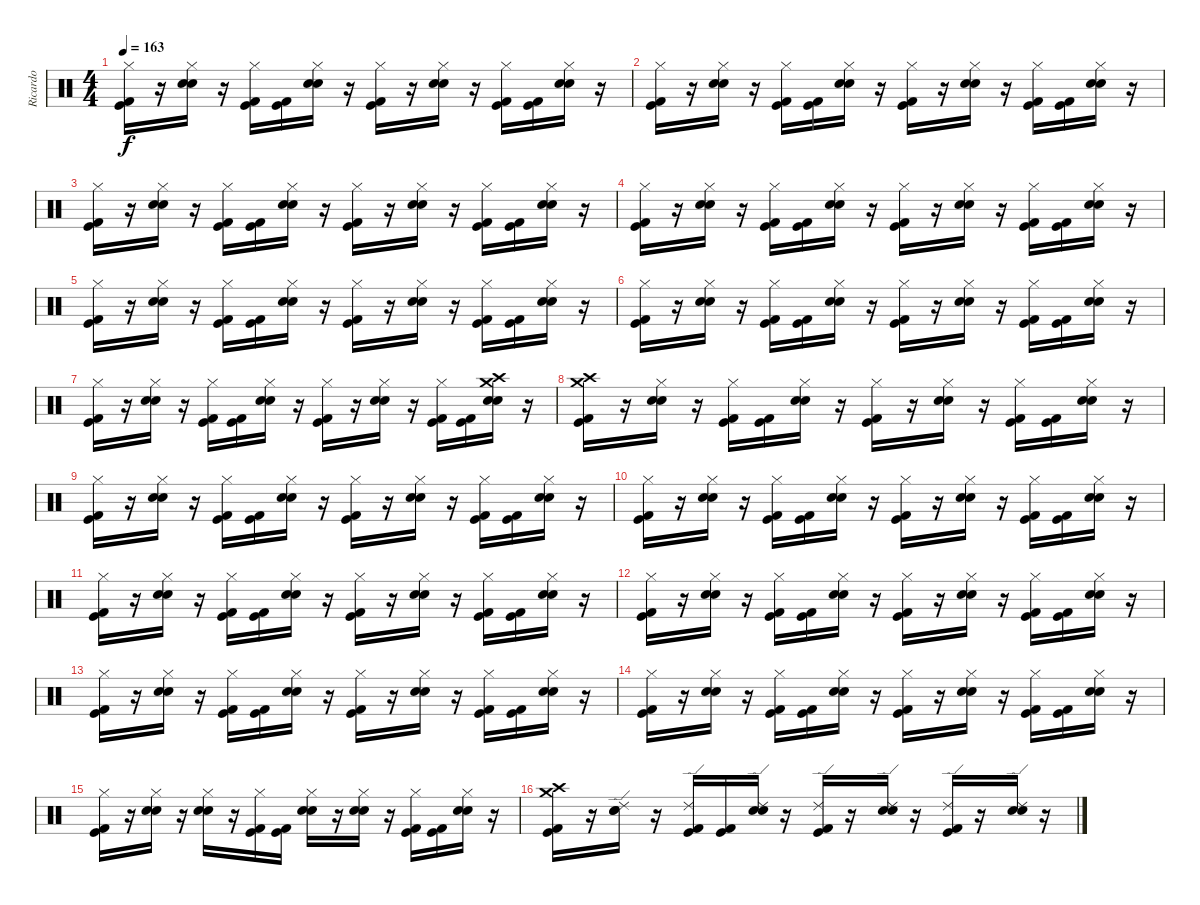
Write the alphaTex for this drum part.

\track ("Ricardo" "Ricardo") {instrument percussion}
\staff {score}
\articulation defaults
\ts (4 4)
\tempo 163
\clef neutral
\ks c
("Hi-Hat (closed)" "Kick (hit) 2" "Kick (hit)").16{dy f} r.16 ("Hi-Hat (closed)" "Electric Snare (hit)" "Snare (hit) 2").16 r.16 ("Kick (hit)" "Kick (hit) 2" "Hi-Hat (closed)").16 ("Kick (hit)" "Kick (hit) 2").16 ("Electric Snare (hit)" "Snare (hit) 2" "Hi-Hat (closed)").16 r.16 ("Kick (hit)" "Kick (hit) 2" "Hi-Hat (closed)").16 r.16 ("Electric Snare (hit)" "Snare (hit) 2" "Hi-Hat (closed)").16 r.16 ("Kick (hit) 2" "Kick (hit)" "Hi-Hat (closed)").16 ("Kick (hit) 2" "Kick (hit)").16 ("Electric Snare (hit)" "Snare (hit) 2" "Hi-Hat (closed)").16 r.16 |
("Hi-Hat (closed)" "Kick (hit) 2" "Kick (hit)").16 r.16 ("Hi-Hat (closed)" "Electric Snare (hit)" "Snare (hit) 2").16 r.16 ("Kick (hit)" "Kick (hit) 2" "Hi-Hat (closed)").16 ("Kick (hit)" "Kick (hit) 2").16 ("Electric Snare (hit)" "Snare (hit) 2" "Hi-Hat (closed)").16 r.16 ("Kick (hit)" "Kick (hit) 2" "Hi-Hat (closed)").16 r.16 ("Electric Snare (hit)" "Snare (hit) 2" "Hi-Hat (closed)").16 r.16 ("Kick (hit) 2" "Kick (hit)" "Hi-Hat (closed)").16 ("Kick (hit) 2" "Kick (hit)").16 ("Electric Snare (hit)" "Snare (hit) 2" "Hi-Hat (closed)").16 r.16 |
("Hi-Hat (closed)" "Kick (hit) 2" "Kick (hit)").16 r.16 ("Hi-Hat (closed)" "Electric Snare (hit)" "Snare (hit) 2").16 r.16 ("Kick (hit)" "Kick (hit) 2" "Hi-Hat (closed)").16 ("Kick (hit)" "Kick (hit) 2").16 ("Electric Snare (hit)" "Snare (hit) 2" "Hi-Hat (closed)").16 r.16 ("Kick (hit)" "Kick (hit) 2" "Hi-Hat (closed)").16 r.16 ("Electric Snare (hit)" "Snare (hit) 2" "Hi-Hat (closed)").16 r.16 ("Kick (hit) 2" "Kick (hit)" "Hi-Hat (closed)").16 ("Kick (hit) 2" "Kick (hit)").16 ("Electric Snare (hit)" "Snare (hit) 2" "Hi-Hat (closed)").16 r.16 |
("Hi-Hat (closed)" "Kick (hit) 2" "Kick (hit)").16 r.16 ("Hi-Hat (closed)" "Electric Snare (hit)" "Snare (hit) 2").16 r.16 ("Kick (hit)" "Kick (hit) 2" "Hi-Hat (closed)").16 ("Kick (hit)" "Kick (hit) 2").16 ("Electric Snare (hit)" "Snare (hit) 2" "Hi-Hat (closed)").16 r.16 ("Kick (hit)" "Kick (hit) 2" "Hi-Hat (closed)").16 r.16 ("Electric Snare (hit)" "Snare (hit) 2" "Hi-Hat (closed)").16 r.16 ("Kick (hit) 2" "Kick (hit)" "Hi-Hat (closed)").16 ("Kick (hit) 2" "Kick (hit)").16 ("Electric Snare (hit)" "Snare (hit) 2" "Hi-Hat (closed)").16 r.16 |
("Hi-Hat (closed)" "Kick (hit) 2" "Kick (hit)").16 r.16 ("Hi-Hat (closed)" "Electric Snare (hit)" "Snare (hit) 2").16 r.16 ("Kick (hit)" "Kick (hit) 2" "Hi-Hat (closed)").16 ("Kick (hit)" "Kick (hit) 2").16 ("Electric Snare (hit)" "Snare (hit) 2" "Hi-Hat (closed)").16 r.16 ("Kick (hit)" "Kick (hit) 2" "Hi-Hat (closed)").16 r.16 ("Electric Snare (hit)" "Snare (hit) 2" "Hi-Hat (closed)").16 r.16 ("Kick (hit) 2" "Kick (hit)" "Hi-Hat (closed)").16 ("Kick (hit) 2" "Kick (hit)").16 ("Electric Snare (hit)" "Snare (hit) 2" "Hi-Hat (closed)").16 r.16 |
("Hi-Hat (closed)" "Kick (hit) 2" "Kick (hit)").16 r.16 ("Hi-Hat (closed)" "Electric Snare (hit)" "Snare (hit) 2").16 r.16 ("Kick (hit)" "Kick (hit) 2" "Hi-Hat (closed)").16 ("Kick (hit)" "Kick (hit) 2").16 ("Electric Snare (hit)" "Snare (hit) 2" "Hi-Hat (closed)").16 r.16 ("Kick (hit)" "Kick (hit) 2" "Hi-Hat (closed)").16 r.16 ("Electric Snare (hit)" "Snare (hit) 2" "Hi-Hat (closed)").16 r.16 ("Kick (hit) 2" "Kick (hit)" "Hi-Hat (closed)").16 ("Kick (hit) 2" "Kick (hit)").16 ("Electric Snare (hit)" "Snare (hit) 2" "Hi-Hat (closed)").16 r.16 |
("Hi-Hat (closed)" "Kick (hit) 2" "Kick (hit)").16 r.16 ("Hi-Hat (closed)" "Electric Snare (hit)" "Snare (hit) 2").16 r.16 ("Kick (hit)" "Kick (hit) 2" "Hi-Hat (closed)").16 ("Kick (hit)" "Kick (hit) 2").16 ("Electric Snare (hit)" "Snare (hit) 2" "Hi-Hat (closed)").16 r.16 ("Kick (hit)" "Kick (hit) 2" "Hi-Hat (closed)").16 r.16 ("Electric Snare (hit)" "Snare (hit) 2" "Hi-Hat (closed)").16 r.16 ("Kick (hit) 2" "Kick (hit)" "Hi-Hat (closed)").16 ("Kick (hit) 2" "Kick (hit)").16 ("Crash medium (hit)" "Crash high (hit)" "Electric Snare (hit)" "Snare (hit) 2").16 r.16 |
("Crash medium (hit)" "Crash high (hit)" "Kick (hit) 2" "Kick (hit)").16 r.16 ("Hi-Hat (closed)" "Electric Snare (hit)" "Snare (hit) 2").16 r.16 ("Kick (hit)" "Kick (hit) 2" "Hi-Hat (closed)").16 ("Kick (hit)" "Kick (hit) 2").16 ("Electric Snare (hit)" "Snare (hit) 2" "Hi-Hat (closed)").16 r.16 ("Kick (hit)" "Kick (hit) 2" "Hi-Hat (closed)").16 r.16 ("Electric Snare (hit)" "Snare (hit) 2" "Hi-Hat (closed)").16 r.16 ("Kick (hit) 2" "Kick (hit)" "Hi-Hat (closed)").16 ("Kick (hit) 2" "Kick (hit)").16 ("Electric Snare (hit)" "Snare (hit) 2" "Hi-Hat (closed)").16 r.16 |
("Hi-Hat (closed)" "Kick (hit) 2" "Kick (hit)").16 r.16 ("Hi-Hat (closed)" "Electric Snare (hit)" "Snare (hit) 2").16 r.16 ("Kick (hit)" "Kick (hit) 2" "Hi-Hat (closed)").16 ("Kick (hit)" "Kick (hit) 2").16 ("Electric Snare (hit)" "Snare (hit) 2" "Hi-Hat (closed)").16 r.16 ("Kick (hit)" "Kick (hit) 2" "Hi-Hat (closed)").16 r.16 ("Electric Snare (hit)" "Snare (hit) 2" "Hi-Hat (closed)").16 r.16 ("Kick (hit) 2" "Kick (hit)" "Hi-Hat (closed)").16 ("Kick (hit) 2" "Kick (hit)").16 ("Electric Snare (hit)" "Snare (hit) 2" "Hi-Hat (closed)").16 r.16 |
("Hi-Hat (closed)" "Kick (hit) 2" "Kick (hit)").16 r.16 ("Hi-Hat (closed)" "Electric Snare (hit)" "Snare (hit) 2").16 r.16 ("Kick (hit)" "Kick (hit) 2" "Hi-Hat (closed)").16 ("Kick (hit)" "Kick (hit) 2").16 ("Electric Snare (hit)" "Snare (hit) 2" "Hi-Hat (closed)").16 r.16 ("Kick (hit)" "Kick (hit) 2" "Hi-Hat (closed)").16 r.16 ("Electric Snare (hit)" "Snare (hit) 2" "Hi-Hat (closed)").16 r.16 ("Kick (hit) 2" "Kick (hit)" "Hi-Hat (closed)").16 ("Kick (hit) 2" "Kick (hit)").16 ("Electric Snare (hit)" "Snare (hit) 2" "Hi-Hat (closed)").16 r.16 |
("Hi-Hat (closed)" "Kick (hit) 2" "Kick (hit)").16 r.16 ("Hi-Hat (closed)" "Electric Snare (hit)" "Snare (hit) 2").16 r.16 ("Kick (hit)" "Kick (hit) 2" "Hi-Hat (closed)").16 ("Kick (hit)" "Kick (hit) 2").16 ("Electric Snare (hit)" "Snare (hit) 2" "Hi-Hat (closed)").16 r.16 ("Kick (hit)" "Kick (hit) 2" "Hi-Hat (closed)").16 r.16 ("Electric Snare (hit)" "Snare (hit) 2" "Hi-Hat (closed)").16 r.16 ("Kick (hit) 2" "Kick (hit)" "Hi-Hat (closed)").16 ("Kick (hit) 2" "Kick (hit)").16 ("Electric Snare (hit)" "Snare (hit) 2" "Hi-Hat (closed)").16 r.16 |
("Hi-Hat (closed)" "Kick (hit) 2" "Kick (hit)").16 r.16 ("Hi-Hat (closed)" "Electric Snare (hit)" "Snare (hit) 2").16 r.16 ("Kick (hit)" "Kick (hit) 2" "Hi-Hat (closed)").16 ("Kick (hit)" "Kick (hit) 2").16 ("Electric Snare (hit)" "Snare (hit) 2" "Hi-Hat (closed)").16 r.16 ("Kick (hit)" "Kick (hit) 2" "Hi-Hat (closed)").16 r.16 ("Electric Snare (hit)" "Snare (hit) 2" "Hi-Hat (closed)").16 r.16 ("Kick (hit) 2" "Kick (hit)" "Hi-Hat (closed)").16 ("Kick (hit) 2" "Kick (hit)").16 ("Electric Snare (hit)" "Snare (hit) 2" "Hi-Hat (closed)").16 r.16 |
("Hi-Hat (closed)" "Kick (hit) 2" "Kick (hit)").16 r.16 ("Hi-Hat (closed)" "Electric Snare (hit)" "Snare (hit) 2").16 r.16 ("Kick (hit)" "Kick (hit) 2" "Hi-Hat (closed)").16 ("Kick (hit)" "Kick (hit) 2").16 ("Electric Snare (hit)" "Snare (hit) 2" "Hi-Hat (closed)").16 r.16 ("Kick (hit)" "Kick (hit) 2" "Hi-Hat (closed)").16 r.16 ("Electric Snare (hit)" "Snare (hit) 2" "Hi-Hat (closed)").16 r.16 ("Kick (hit) 2" "Kick (hit)" "Hi-Hat (closed)").16 ("Kick (hit) 2" "Kick (hit)").16 ("Electric Snare (hit)" "Snare (hit) 2" "Hi-Hat (closed)").16 r.16 |
("Hi-Hat (closed)" "Kick (hit) 2" "Kick (hit)").16 r.16 ("Hi-Hat (closed)" "Electric Snare (hit)" "Snare (hit) 2").16 r.16 ("Kick (hit)" "Kick (hit) 2" "Hi-Hat (closed)").16 ("Kick (hit)" "Kick (hit) 2").16 ("Electric Snare (hit)" "Snare (hit) 2" "Hi-Hat (closed)").16 r.16 ("Kick (hit)" "Kick (hit) 2" "Hi-Hat (closed)").16 r.16 ("Electric Snare (hit)" "Snare (hit) 2" "Hi-Hat (closed)").16 r.16 ("Kick (hit) 2" "Kick (hit)" "Hi-Hat (closed)").16 ("Kick (hit) 2" "Kick (hit)").16 ("Electric Snare (hit)" "Snare (hit) 2" "Hi-Hat (closed)").16 r.16 |
("Hi-Hat (closed)" "Kick (hit) 2" "Kick (hit)").16 r.16 ("Hi-Hat (closed)" "Electric Snare (hit)" "Snare (hit) 2").16 r.16 ("Electric Snare (hit)" "Snare (hit) 2" "Hi-Hat (closed)").16 r.16 ("Kick (hit) 2" "Kick (hit)" "Hi-Hat (closed)").16 ("Kick (hit) 2" "Kick (hit)").16 ("Electric Snare (hit)" "Snare (hit) 2" "Hi-Hat (closed)").16 r.16 ("Electric Snare (hit)" "Snare (hit) 2" "Hi-Hat (closed)").16 r.16 ("Kick (hit) 2" "Kick (hit)" "Hi-Hat (closed)").16 ("Kick (hit) 2" "Kick (hit)").16 ("Electric Snare (hit)" "Snare (hit) 2" "Hi-Hat (closed)").16 r.16 |
("Crash high (hit)" "Crash medium (hit)" "Kick (hit) 2" "Kick (hit)").16 r.16 ("Ride (edge) 2" "Snare (hit) 2" "Electric Snare (hit)").16 r.16 ("Ride (edge) 2" "Kick (hit) 2" "Kick (hit)").16 ("Kick (hit) 2" "Kick (hit)").16 ("Ride (edge) 2" "Snare (hit) 2" "Electric Snare (hit)").16 r.16 ("Ride (edge) 2" "Kick (hit) 2" "Kick (hit)").16 r.16 ("Ride (edge) 2" "Electric Snare (hit)" "Snare (hit) 2").16 r.16 ("Ride (edge) 2" "Kick (hit) 2" "Kick (hit)").16 r.16 ("Ride (edge) 2" "Electric Snare (hit)" "Snare (hit) 2").16 r.16
